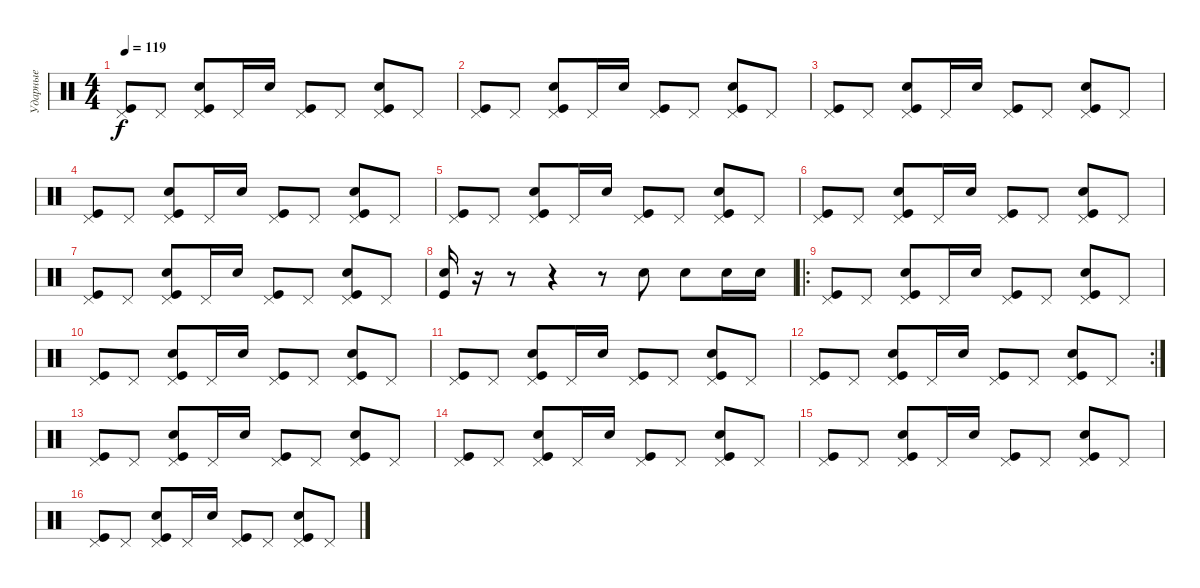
\track ("Ударные" "Ударные") {instrument percussion}
\staff {score}
\articulation defaults
\ts (4 4)
\tempo 119
\clef neutral
\ks c
("Kick (hit)" "Pedal Hi-Hat (hit)").8{dy f} "Pedal Hi-Hat (hit)".8 ("Kick (hit)" "Electric Snare (hit)" "Pedal Hi-Hat (hit)").8 "Pedal Hi-Hat (hit)".16 "Electric Snare (hit)".16 ("Kick (hit)" "Pedal Hi-Hat (hit)").8 "Pedal Hi-Hat (hit)".8 ("Kick (hit)" "Electric Snare (hit)" "Pedal Hi-Hat (hit)").8 "Pedal Hi-Hat (hit)".8 |
("Kick (hit)" "Pedal Hi-Hat (hit)").8 "Pedal Hi-Hat (hit)".8 ("Kick (hit)" "Electric Snare (hit)" "Pedal Hi-Hat (hit)").8 "Pedal Hi-Hat (hit)".16 "Electric Snare (hit)".16 ("Kick (hit)" "Pedal Hi-Hat (hit)").8 "Pedal Hi-Hat (hit)".8 ("Kick (hit)" "Electric Snare (hit)" "Pedal Hi-Hat (hit)").8 "Pedal Hi-Hat (hit)".8 |
("Kick (hit)" "Pedal Hi-Hat (hit)").8 "Pedal Hi-Hat (hit)".8 ("Kick (hit)" "Electric Snare (hit)" "Pedal Hi-Hat (hit)").8 "Pedal Hi-Hat (hit)".16 "Electric Snare (hit)".16 ("Kick (hit)" "Pedal Hi-Hat (hit)").8 "Pedal Hi-Hat (hit)".8 ("Kick (hit)" "Electric Snare (hit)" "Pedal Hi-Hat (hit)").8 "Pedal Hi-Hat (hit)".8 |
("Kick (hit)" "Pedal Hi-Hat (hit)").8 "Pedal Hi-Hat (hit)".8 ("Kick (hit)" "Electric Snare (hit)" "Pedal Hi-Hat (hit)").8 "Pedal Hi-Hat (hit)".16 "Electric Snare (hit)".16 ("Kick (hit)" "Pedal Hi-Hat (hit)").8 "Pedal Hi-Hat (hit)".8 ("Kick (hit)" "Electric Snare (hit)" "Pedal Hi-Hat (hit)").8 "Pedal Hi-Hat (hit)".8 |
("Kick (hit)" "Pedal Hi-Hat (hit)").8 "Pedal Hi-Hat (hit)".8 ("Kick (hit)" "Electric Snare (hit)" "Pedal Hi-Hat (hit)").8 "Pedal Hi-Hat (hit)".16 "Electric Snare (hit)".16 ("Kick (hit)" "Pedal Hi-Hat (hit)").8 "Pedal Hi-Hat (hit)".8 ("Kick (hit)" "Electric Snare (hit)" "Pedal Hi-Hat (hit)").8 "Pedal Hi-Hat (hit)".8 |
("Kick (hit)" "Pedal Hi-Hat (hit)").8 "Pedal Hi-Hat (hit)".8 ("Kick (hit)" "Electric Snare (hit)" "Pedal Hi-Hat (hit)").8 "Pedal Hi-Hat (hit)".16 "Electric Snare (hit)".16 ("Kick (hit)" "Pedal Hi-Hat (hit)").8 "Pedal Hi-Hat (hit)".8 ("Kick (hit)" "Electric Snare (hit)" "Pedal Hi-Hat (hit)").8 "Pedal Hi-Hat (hit)".8 |
("Kick (hit)" "Pedal Hi-Hat (hit)").8 "Pedal Hi-Hat (hit)".8 ("Kick (hit)" "Electric Snare (hit)" "Pedal Hi-Hat (hit)").8 "Pedal Hi-Hat (hit)".16 "Electric Snare (hit)".16 ("Kick (hit)" "Pedal Hi-Hat (hit)").8 "Pedal Hi-Hat (hit)".8 ("Kick (hit)" "Electric Snare (hit)" "Pedal Hi-Hat (hit)").8 "Pedal Hi-Hat (hit)".8 |
("Kick (hit)" "Electric Snare (hit)").16 r.16 r.8 r.4 r.8 "Snare (hit) 2".8 "Snare (hit) 2".8 "Snare (hit) 2".16 "Snare (hit) 2".16 |
\ro
("Kick (hit)" "Pedal Hi-Hat (hit)").8 "Pedal Hi-Hat (hit)".8 ("Kick (hit)" "Snare (hit) 2" "Pedal Hi-Hat (hit)").8 "Pedal Hi-Hat (hit)".16 "Snare (hit) 2".16 ("Kick (hit)" "Pedal Hi-Hat (hit)").8 "Pedal Hi-Hat (hit)".8 ("Kick (hit)" "Snare (hit) 2" "Pedal Hi-Hat (hit)").8 "Pedal Hi-Hat (hit)".8 |
("Kick (hit)" "Pedal Hi-Hat (hit)").8 "Pedal Hi-Hat (hit)".8 ("Kick (hit)" "Snare (hit) 2" "Pedal Hi-Hat (hit)").8 "Pedal Hi-Hat (hit)".16 "Snare (hit) 2".16 ("Kick (hit)" "Pedal Hi-Hat (hit)").8 "Pedal Hi-Hat (hit)".8 ("Kick (hit)" "Snare (hit) 2" "Pedal Hi-Hat (hit)").8 "Pedal Hi-Hat (hit)".8 |
("Kick (hit)" "Pedal Hi-Hat (hit)").8 "Pedal Hi-Hat (hit)".8 ("Kick (hit)" "Snare (hit) 2" "Pedal Hi-Hat (hit)").8 "Pedal Hi-Hat (hit)".16 "Snare (hit) 2".16 ("Kick (hit)" "Pedal Hi-Hat (hit)").8 "Pedal Hi-Hat (hit)".8 ("Kick (hit)" "Snare (hit) 2" "Pedal Hi-Hat (hit)").8 "Pedal Hi-Hat (hit)".8 |
\rc 2
("Kick (hit)" "Pedal Hi-Hat (hit)").8 "Pedal Hi-Hat (hit)".8 ("Kick (hit)" "Snare (hit) 2" "Pedal Hi-Hat (hit)").8 "Pedal Hi-Hat (hit)".16 "Snare (hit) 2".16 ("Kick (hit)" "Pedal Hi-Hat (hit)").8 "Pedal Hi-Hat (hit)".8 ("Kick (hit)" "Snare (hit) 2" "Pedal Hi-Hat (hit)").8 "Pedal Hi-Hat (hit)".8 |
("Kick (hit)" "Pedal Hi-Hat (hit)").8 "Pedal Hi-Hat (hit)".8 ("Kick (hit)" "Snare (hit) 2" "Pedal Hi-Hat (hit)").8 "Pedal Hi-Hat (hit)".16 "Snare (hit) 2".16 ("Kick (hit)" "Pedal Hi-Hat (hit)").8 "Pedal Hi-Hat (hit)".8 ("Kick (hit)" "Snare (hit) 2" "Pedal Hi-Hat (hit)").8 "Pedal Hi-Hat (hit)".8 |
("Kick (hit)" "Pedal Hi-Hat (hit)").8 "Pedal Hi-Hat (hit)".8 ("Kick (hit)" "Snare (hit) 2" "Pedal Hi-Hat (hit)").8 "Pedal Hi-Hat (hit)".16 "Snare (hit) 2".16 ("Kick (hit)" "Pedal Hi-Hat (hit)").8 "Pedal Hi-Hat (hit)".8 ("Kick (hit)" "Snare (hit) 2" "Pedal Hi-Hat (hit)").8 "Pedal Hi-Hat (hit)".8 |
("Kick (hit)" "Pedal Hi-Hat (hit)").8 "Pedal Hi-Hat (hit)".8 ("Kick (hit)" "Snare (hit) 2" "Pedal Hi-Hat (hit)").8 "Pedal Hi-Hat (hit)".16 "Snare (hit) 2".16 ("Kick (hit)" "Pedal Hi-Hat (hit)").8 "Pedal Hi-Hat (hit)".8 ("Kick (hit)" "Snare (hit) 2" "Pedal Hi-Hat (hit)").8 "Pedal Hi-Hat (hit)".8 |
("Kick (hit)" "Pedal Hi-Hat (hit)").8 "Pedal Hi-Hat (hit)".8 ("Kick (hit)" "Snare (hit) 2" "Pedal Hi-Hat (hit)").8 "Pedal Hi-Hat (hit)".16 "Snare (hit) 2".16 ("Kick (hit)" "Pedal Hi-Hat (hit)").8 "Pedal Hi-Hat (hit)".8 ("Kick (hit)" "Snare (hit) 2" "Pedal Hi-Hat (hit)").8 "Pedal Hi-Hat (hit)".8
